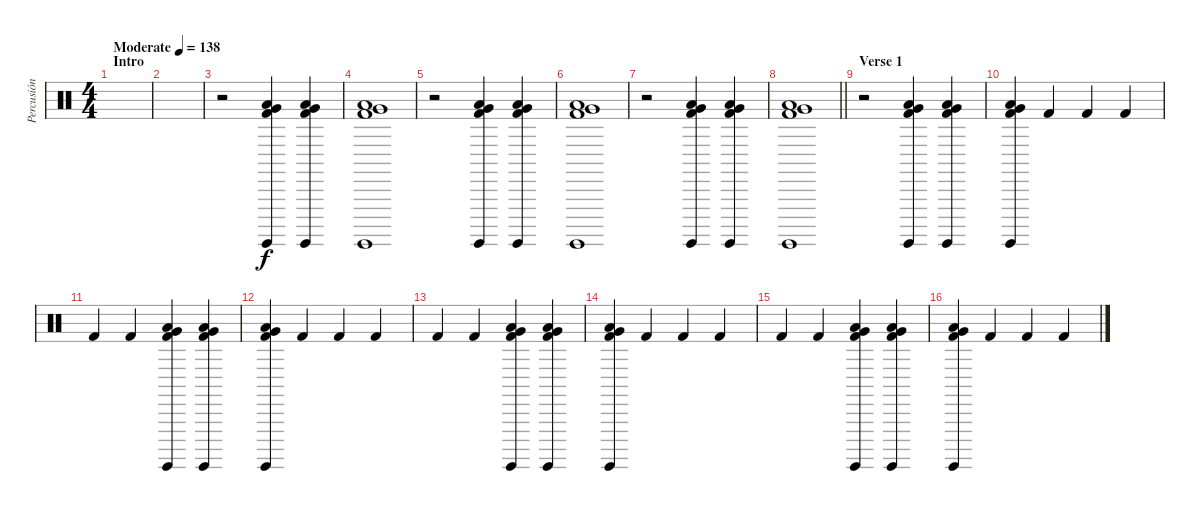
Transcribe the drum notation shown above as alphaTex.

\track ("Percusión" "Percusión") {instrument percussion}
\staff {score}
\articulation defaults
\ts (4 4)
\section ("" "Intro")
\tempo (138 "Moderate")
\clef neutral
\ks c
|
|
r.2 ("Low Tom (hit)" "Surdo (hit)" "Very Low Tom (hit)" "Kick (hit) 2").4 ("Low Tom (hit)" "Surdo (hit)" "Very Low Tom (hit)" "Kick (hit) 2").4 |
("Low Tom (hit)" "Surdo (hit)" "Very Low Tom (hit)" "Kick (hit) 2").1 |
r.2 ("Low Tom (hit)" "Surdo (hit)" "Very Low Tom (hit)" "Kick (hit) 2").4 ("Low Tom (hit)" "Surdo (hit)" "Very Low Tom (hit)" "Kick (hit) 2").4 |
("Low Tom (hit)" "Surdo (hit)" "Very Low Tom (hit)" "Kick (hit) 2").1 |
r.2 ("Low Tom (hit)" "Surdo (hit)" "Very Low Tom (hit)" "Kick (hit) 2").4 ("Low Tom (hit)" "Surdo (hit)" "Very Low Tom (hit)" "Kick (hit) 2").4 |
\barLineRight lightlight
("Low Tom (hit)" "Surdo (hit)" "Very Low Tom (hit)" "Kick (hit) 2").1 |
\section ("" "Verse 1")
r.2 ("Low Tom (hit)" "Surdo (hit)" "Very Low Tom (hit)" "Kick (hit) 2").4 ("Low Tom (hit)" "Surdo (hit)" "Very Low Tom (hit)" "Kick (hit) 2").4 |
("Low Tom (hit)" "Surdo (hit)" "Very Low Tom (hit)" "Kick (hit) 2").4 "Kick (hit) 2".4 "Kick (hit) 2".4 "Kick (hit) 2".4 |
"Kick (hit) 2".4 "Kick (hit) 2".4 ("Low Tom (hit)" "Surdo (hit)" "Very Low Tom (hit)" "Kick (hit) 2").4 ("Low Tom (hit)" "Surdo (hit)" "Very Low Tom (hit)" "Kick (hit) 2").4 |
("Low Tom (hit)" "Surdo (hit)" "Very Low Tom (hit)" "Kick (hit) 2").4 "Kick (hit) 2".4 "Kick (hit) 2".4 "Kick (hit) 2".4 |
"Kick (hit) 2".4 "Kick (hit) 2".4 ("Low Tom (hit)" "Surdo (hit)" "Very Low Tom (hit)" "Kick (hit) 2").4 ("Low Tom (hit)" "Surdo (hit)" "Very Low Tom (hit)" "Kick (hit) 2").4 |
("Low Tom (hit)" "Surdo (hit)" "Very Low Tom (hit)" "Kick (hit) 2").4 "Kick (hit) 2".4 "Kick (hit) 2".4 "Kick (hit) 2".4 |
"Kick (hit) 2".4 "Kick (hit) 2".4 ("Low Tom (hit)" "Surdo (hit)" "Very Low Tom (hit)" "Kick (hit) 2").4 ("Low Tom (hit)" "Surdo (hit)" "Very Low Tom (hit)" "Kick (hit) 2").4 |
("Low Tom (hit)" "Surdo (hit)" "Very Low Tom (hit)" "Kick (hit) 2").4 "Kick (hit) 2".4 "Kick (hit) 2".4 "Kick (hit) 2".4
